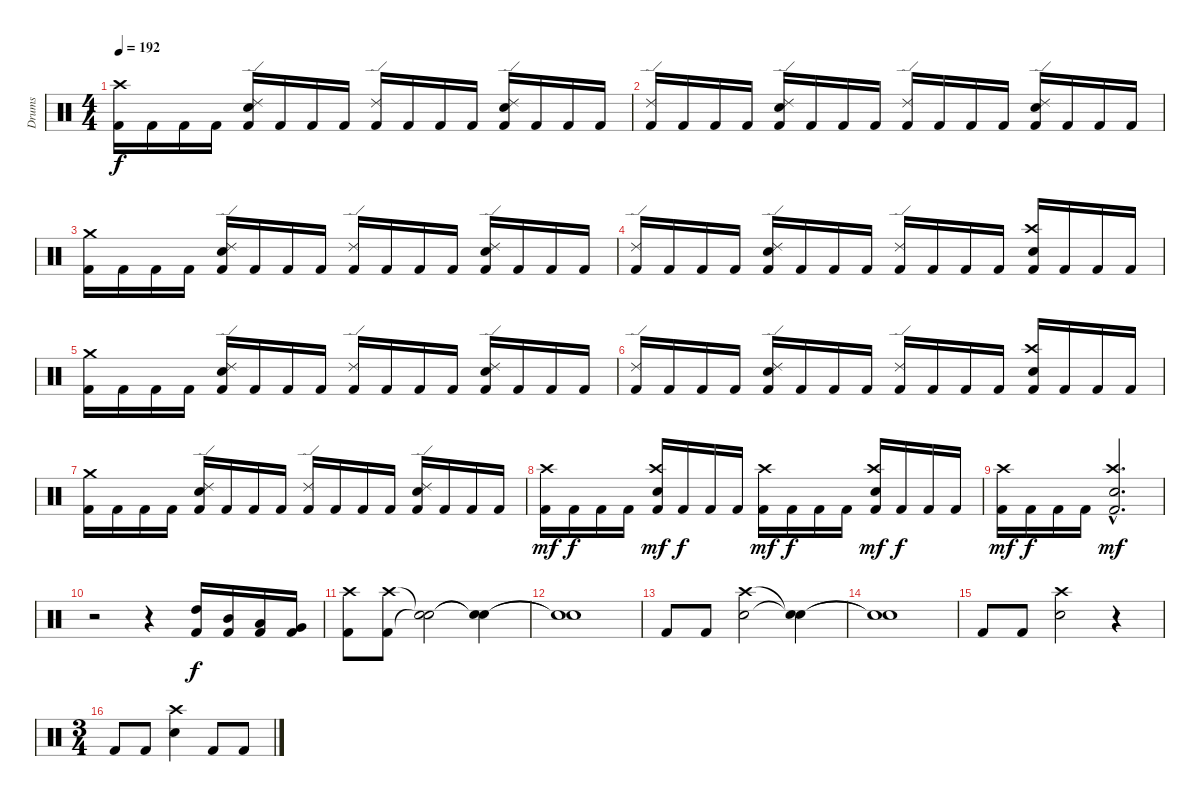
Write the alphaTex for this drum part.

\track ("Drums" "Drums") {instrument percussion}
\staff {score}
\articulation defaults
\ts (4 4)
\section ("" "")
\tempo 192
\clef neutral
\ks c
("Kick (hit) 2" "Crash high (hit)").16{dy f} "Kick (hit) 2".16 "Kick (hit) 2".16 "Kick (hit) 2".16 ("Kick (hit) 2" "Electric Snare (hit)" "Ride (edge) 2").16 "Kick (hit) 2".16 "Kick (hit) 2".16 "Kick (hit) 2".16 ("Kick (hit) 2" "Ride (edge) 2").16 "Kick (hit) 2".16 "Kick (hit) 2".16 "Kick (hit) 2".16 ("Kick (hit) 2" "Electric Snare (hit)" "Ride (edge) 2").16 "Kick (hit) 2".16 "Kick (hit) 2".16 "Kick (hit) 2".16 |
("Kick (hit) 2" "Ride (edge) 2").16 "Kick (hit) 2".16 "Kick (hit) 2".16 "Kick (hit) 2".16 ("Kick (hit) 2" "Electric Snare (hit)" "Ride (edge) 2").16 "Kick (hit) 2".16 "Kick (hit) 2".16 "Kick (hit) 2".16 ("Kick (hit) 2" "Ride (edge) 2").16 "Kick (hit) 2".16 "Kick (hit) 2".16 "Kick (hit) 2".16 ("Kick (hit) 2" "Electric Snare (hit)" "Ride (edge) 2").16 "Kick (hit) 2".16 "Kick (hit) 2".16 "Kick (hit) 2".16 |
("Kick (hit) 2" "Crash medium (hit)").16 "Kick (hit) 2".16 "Kick (hit) 2".16 "Kick (hit) 2".16 ("Kick (hit) 2" "Electric Snare (hit)" "Ride (edge) 2").16 "Kick (hit) 2".16 "Kick (hit) 2".16 "Kick (hit) 2".16 ("Kick (hit) 2" "Ride (edge) 2").16 "Kick (hit) 2".16 "Kick (hit) 2".16 "Kick (hit) 2".16 ("Kick (hit) 2" "Electric Snare (hit)" "Ride (edge) 2").16 "Kick (hit) 2".16 "Kick (hit) 2".16 "Kick (hit) 2".16 |
("Kick (hit) 2" "Ride (edge) 2").16 "Kick (hit) 2".16 "Kick (hit) 2".16 "Kick (hit) 2".16 ("Kick (hit) 2" "Electric Snare (hit)" "Ride (edge) 2").16 "Kick (hit) 2".16 "Kick (hit) 2".16 "Kick (hit) 2".16 ("Kick (hit) 2" "Ride (edge) 2").16 "Kick (hit) 2".16 "Kick (hit) 2".16 "Kick (hit) 2".16 ("Kick (hit) 2" "Electric Snare (hit)" "Crash high (hit)").16 "Kick (hit) 2".16 "Kick (hit) 2".16 "Kick (hit) 2".16 |
("Kick (hit) 2" "Crash medium (hit)").16 "Kick (hit) 2".16 "Kick (hit) 2".16 "Kick (hit) 2".16 ("Kick (hit) 2" "Electric Snare (hit)" "Ride (edge) 2").16 "Kick (hit) 2".16 "Kick (hit) 2".16 "Kick (hit) 2".16 ("Kick (hit) 2" "Ride (edge) 2").16 "Kick (hit) 2".16 "Kick (hit) 2".16 "Kick (hit) 2".16 ("Kick (hit) 2" "Electric Snare (hit)" "Ride (edge) 2").16 "Kick (hit) 2".16 "Kick (hit) 2".16 "Kick (hit) 2".16 |
("Kick (hit) 2" "Ride (edge) 2").16 "Kick (hit) 2".16 "Kick (hit) 2".16 "Kick (hit) 2".16 ("Kick (hit) 2" "Electric Snare (hit)" "Ride (edge) 2").16 "Kick (hit) 2".16 "Kick (hit) 2".16 "Kick (hit) 2".16 ("Kick (hit) 2" "Ride (edge) 2").16 "Kick (hit) 2".16 "Kick (hit) 2".16 "Kick (hit) 2".16 ("Kick (hit) 2" "Electric Snare (hit)" "Crash high (hit)").16 "Kick (hit) 2".16 "Kick (hit) 2".16 "Kick (hit) 2".16 |
("Kick (hit) 2" "Crash medium (hit)").16 "Kick (hit) 2".16 "Kick (hit) 2".16 "Kick (hit) 2".16 ("Kick (hit) 2" "Electric Snare (hit)" "Ride (edge) 2").16 "Kick (hit) 2".16 "Kick (hit) 2".16 "Kick (hit) 2".16 ("Kick (hit) 2" "Ride (edge) 2").16 "Kick (hit) 2".16 "Kick (hit) 2".16 "Kick (hit) 2".16 ("Kick (hit) 2" "Electric Snare (hit)" "Ride (edge) 2").16 "Kick (hit) 2".16 "Kick (hit) 2".16 "Kick (hit) 2".16 |
("Kick (hit) 2" "Crash high (hit)").16{dy mf} "Kick (hit) 2".16{dy f} "Kick (hit) 2".16 "Kick (hit) 2".16 ("Kick (hit) 2" "Electric Snare (hit)" "Crash high (hit)").16{dy mf} "Kick (hit) 2".16{dy f} "Kick (hit) 2".16 "Kick (hit) 2".16 ("Kick (hit) 2" "Crash high (hit)").16{dy mf} "Kick (hit) 2".16{dy f} "Kick (hit) 2".16 "Kick (hit) 2".16 ("Kick (hit) 2" "Electric Snare (hit)" "Crash high (hit)").16{dy mf} "Kick (hit) 2".16{dy f} "Kick (hit) 2".16 "Kick (hit) 2".16 |
("Kick (hit) 2" "Crash high (hit)").16{dy mf} "Kick (hit) 2".16{dy f} "Kick (hit) 2".16 "Kick (hit) 2".16 ("Kick (hit) 2"{hac} "Electric Snare (hit)"{hac} "Crash high (hit)"{hac}).2{d dy mf} |
r.2 r.4 ("Kick (hit) 2" "High Tom (hit)").16{dy f} ("Kick (hit) 2" "Mid Tom (hit)").16 ("Kick (hit) 2" "Low Tom (hit)").16 ("Kick (hit) 2" "Very Low Tom (hit)").16 |
("Kick (hit) 2" "Crash high (hit)").8 ("Kick (hit) 2" "Crash high (hit)").8 ("Snare (hit)"{t} "Snare (hit)"{t}).2 ("Snare (hit)"{t} "Snare (hit)"{t}).4 |
("Snare (hit)"{t} "Snare (hit)"{t}).1 |
"Kick (hit) 2".8 "Kick (hit) 2".8 ("Electric Snare (hit)" "Crash high (hit)").2 ("Snare (hit)"{t} "Snare (hit)"{t}).4 |
("Snare (hit)"{t} "Snare (hit)"{t}).1 |
"Kick (hit) 2".8 "Kick (hit) 2".8 ("Electric Snare (hit)" "Crash high (hit)").2 r.4 |
\ts (3 4)
"Kick (hit) 2".8 "Kick (hit) 2".8 ("Electric Snare (hit)" "Crash high (hit)").4 "Kick (hit) 2".8 "Kick (hit) 2".8
